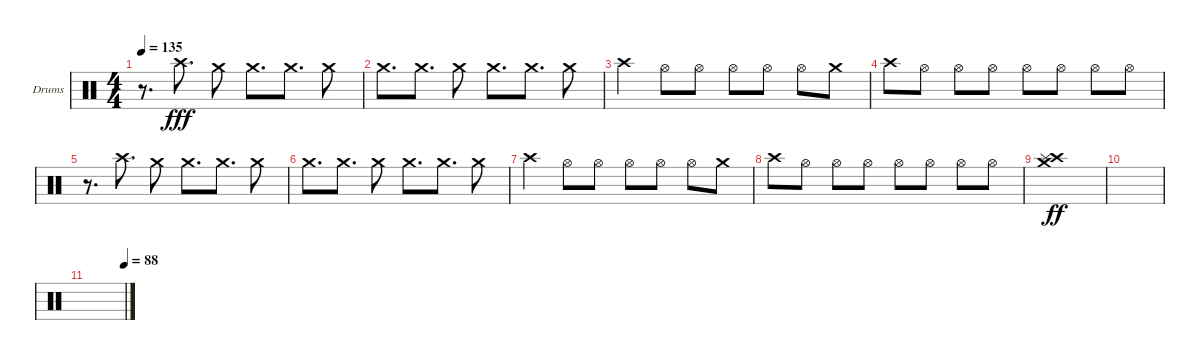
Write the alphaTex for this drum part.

\defaultSystemsLayout 4
\bracketExtendMode groupsimilarinstruments
\firstSystemTrackNameOrientation horizontal
\otherSystemsTrackNameOrientation horizontal
\track ("Matt Helders" "Drums") {instrument percussion}
\staff {score}
\articulation defaults
\ts (4 4)
\tempo 135
\clef neutral
\ks c
r.8{d dy fff} "Crash high (hit)".8{d} "Crash medium (hit)".8 "Crash medium (hit)".8{d} "Crash medium (hit)".8{d} "Crash medium (hit)".8 |
"Crash medium (hit)".8{d} "Crash medium (hit)".8{d} "Crash medium (hit)".8 "Crash medium (hit)".8{d} "Crash medium (hit)".8{d} "Crash medium (hit)".8 |
"Crash high (hit)".4 "Hi-Hat (open)".8 "Hi-Hat (open)".8 "Hi-Hat (open)".8 "Hi-Hat (open)".8 "Hi-Hat (open)".8 "Crash medium (hit)".8 |
"Crash high (hit)".8 "Hi-Hat (open)".8 "Hi-Hat (open)".8 "Hi-Hat (open)".8 "Hi-Hat (open)".8 "Hi-Hat (open)".8 "Hi-Hat (open)".8 "Hi-Hat (open)".8 |
r.8{d} "Crash high (hit)".8{d} "Crash medium (hit)".8 "Crash medium (hit)".8{d} "Crash medium (hit)".8{d} "Crash medium (hit)".8 |
"Crash medium (hit)".8{d} "Crash medium (hit)".8{d} "Crash medium (hit)".8 "Crash medium (hit)".8{d} "Crash medium (hit)".8{d} "Crash medium (hit)".8 |
"Crash high (hit)".4 "Hi-Hat (open)".8 "Hi-Hat (open)".8 "Hi-Hat (open)".8 "Hi-Hat (open)".8 "Hi-Hat (open)".8 "Crash medium (hit)".8 |
"Crash high (hit)".8 "Hi-Hat (open)".8 "Hi-Hat (open)".8 "Hi-Hat (open)".8 "Hi-Hat (open)".8 "Hi-Hat (open)".8 "Hi-Hat (open)".8 "Hi-Hat (open)".8 |
("Crash high (hit)" "Crash medium (hit)" "Splash (hit)").1{dy ff} |
|
\tempo (88 1)
